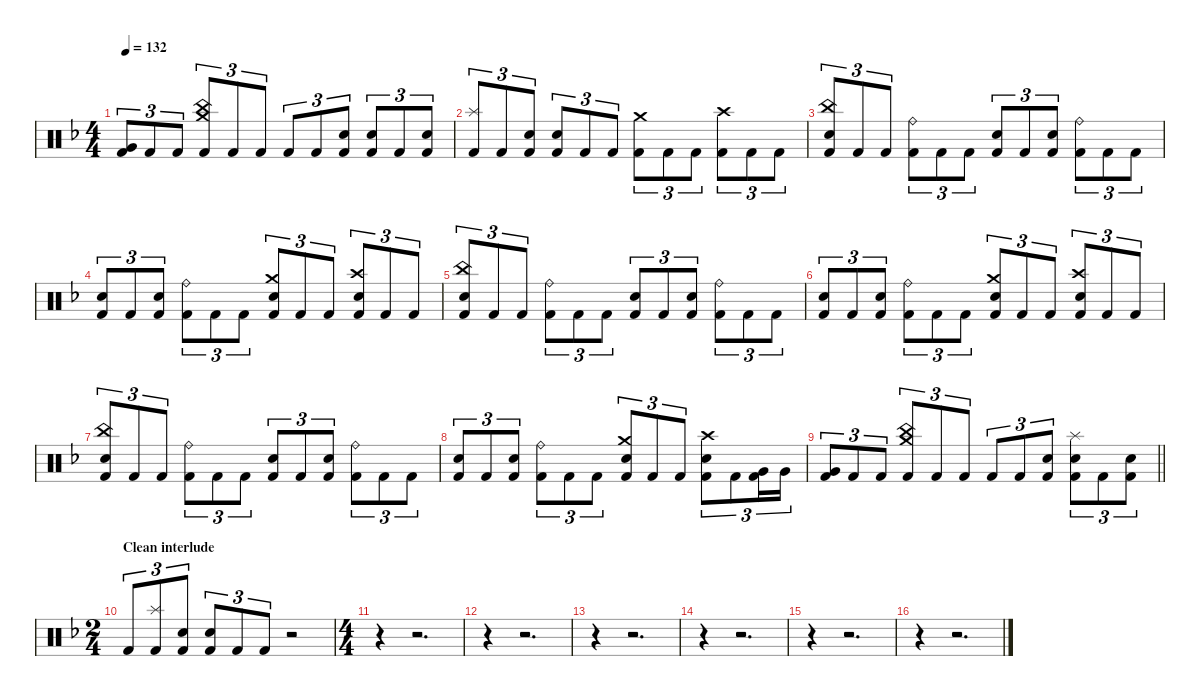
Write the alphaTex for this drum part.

\defaultSystemsLayout 4
\hideDynamics
\bracketExtendMode nobrackets
\singleTrackTrackNamePolicy hidden
\multiTrackTrackNamePolicy hidden
\firstSystemTrackNameMode fullname
\firstSystemTrackNameOrientation horizontal
\otherSystemsTrackNameOrientation horizontal
\track ("Drums" "drm.") {instrument percussion}
\staff {score}
\articulation defaults
\ts (4 4)
\tempo 132
\clef neutral
\ks dminor
("Very Low Tom (hit)"{acc forcenatural} "Kick (hit) 2"{acc forcenatural}).8{tu (3 2) dy f beam Up} "Kick (hit) 2"{acc forcenatural}.8{tu (3 2) beam Up} "Kick (hit) 2"{acc forcenatural}.8{tu (3 2) beam Up} ("China (hit)"{acc forcenatural} "Crash medium (hit)"{acc forcenatural} "Kick (hit) 2"{acc forcenatural}).8{tu (3 2) beam Up} "Kick (hit) 2"{acc forcenatural}.8{tu (3 2) beam Up} "Kick (hit) 2"{acc forcenatural}.8{tu (3 2) beam Up} "Kick (hit) 2"{acc forcenatural}.8{tu (3 2) beam Up} "Kick (hit) 2"{acc forcenatural}.8{tu (3 2) beam Up} ("Snare (hit) 2"{acc forcenatural} "Kick (hit) 2"{acc forcenatural}).8{tu (3 2) beam Up} ("Snare (hit) 2"{acc forcenatural} "Kick (hit) 2"{acc forcenatural}).8{tu (3 2) beam Up} "Kick (hit) 2"{acc forcenatural}.8{tu (3 2) beam Up} ("Snare (hit) 2"{acc forcenatural} "Kick (hit) 2"{acc forcenatural}).8{tu (3 2) beam Up} |
("Splash (hit)"{acc forcenatural} "Kick (hit) 2"{acc forcenatural}).8{tu (3 2) beam Up} "Kick (hit) 2"{acc forcenatural}.8{tu (3 2) beam Up} ("Snare (hit) 2"{acc forcenatural} "Kick (hit) 2"{acc forcenatural}).8{tu (3 2) beam Up} ("Snare (hit) 2"{acc forcenatural} "Kick (hit) 2"{acc forcenatural}).8{tu (3 2) beam Up} "Kick (hit) 2"{acc forcenatural}.8{tu (3 2) beam Up} "Kick (hit) 2"{acc forcenatural}.8{tu (3 2) beam Up} ("Crash medium (hit)"{acc forcenatural} "Kick (hit) 2"{acc forcenatural}).8{tu (3 2) beam Down} "Kick (hit) 2"{acc forcenatural}.8{tu (3 2) beam Down} "Kick (hit) 2"{acc forcenatural}.8{tu (3 2) beam Down} ("Crash high (hit)"{acc forcenatural} "Kick (hit) 2"{acc forcenatural}).8{tu (3 2) beam Down} "Kick (hit) 2"{acc forcenatural}.8{tu (3 2) beam Down} "Kick (hit) 2"{acc forcenatural}.8{tu (3 2) beam Down} |
("China (hit)"{acc forcenatural} "Snare (hit) 2"{acc forcenatural} "Kick (hit) 2"{acc forcenatural}).8{tu (3 2) beam Up} "Kick (hit) 2"{acc forcenatural}.8{tu (3 2) beam Up} "Kick (hit) 2"{acc forcenatural}.8{tu (3 2) beam Up} ("Ride (bell)"{acc forcenatural} "Kick (hit) 2"{acc forcenatural}).8{tu (3 2) beam Down} "Kick (hit) 2"{acc forcenatural}.8{tu (3 2) beam Down} "Kick (hit) 2"{acc forcenatural}.8{tu (3 2) beam Down} ("Snare (hit) 2"{acc forcenatural} "Kick (hit) 2"{acc forcenatural}).8{tu (3 2) beam Up} "Kick (hit) 2"{acc forcenatural}.8{tu (3 2) beam Up} ("Snare (hit) 2"{acc forcenatural} "Kick (hit) 2"{acc forcenatural}).8{tu (3 2) beam Up} ("Ride (bell)"{acc forcenatural} "Kick (hit) 2"{acc forcenatural}).8{tu (3 2) beam Down} "Kick (hit) 2"{acc forcenatural}.8{tu (3 2) beam Down} "Kick (hit) 2"{acc forcenatural}.8{tu (3 2) beam Down} |
("Snare (hit) 2"{acc forcenatural} "Kick (hit) 2"{acc forcenatural}).8{tu (3 2) beam Up} "Kick (hit) 2"{acc forcenatural}.8{tu (3 2) beam Up} ("Snare (hit) 2"{acc forcenatural} "Kick (hit) 2"{acc forcenatural}).8{tu (3 2) beam Up} ("Ride (bell)"{acc forcenatural} "Kick (hit) 2"{acc forcenatural}).8{tu (3 2) beam Down} "Kick (hit) 2"{acc forcenatural}.8{tu (3 2) beam Down} "Kick (hit) 2"{acc forcenatural}.8{tu (3 2) beam Down} ("Crash medium (hit)"{acc forcenatural} "Snare (hit) 2"{acc forcenatural} "Kick (hit) 2"{acc forcenatural}).8{tu (3 2) beam Up} "Kick (hit) 2"{acc forcenatural}.8{tu (3 2) beam Up} "Kick (hit) 2"{acc forcenatural}.8{tu (3 2) beam Up} ("Crash high (hit)"{acc forcenatural} "Snare (hit) 2"{acc forcenatural} "Kick (hit) 2"{acc forcenatural}).8{tu (3 2) beam Up} "Kick (hit) 2"{acc forcenatural}.8{tu (3 2) beam Up} "Kick (hit) 2"{acc forcenatural}.8{tu (3 2) beam Up} |
("China (hit)"{acc forcenatural} "Snare (hit) 2"{acc forcenatural} "Kick (hit) 2"{acc forcenatural}).8{tu (3 2) beam Up} "Kick (hit) 2"{acc forcenatural}.8{tu (3 2) beam Up} "Kick (hit) 2"{acc forcenatural}.8{tu (3 2) beam Up} ("Ride (bell)"{acc forcenatural} "Kick (hit) 2"{acc forcenatural}).8{tu (3 2) beam Down} "Kick (hit) 2"{acc forcenatural}.8{tu (3 2) beam Down} "Kick (hit) 2"{acc forcenatural}.8{tu (3 2) beam Down} ("Snare (hit) 2"{acc forcenatural} "Kick (hit) 2"{acc forcenatural}).8{tu (3 2) beam Up} "Kick (hit) 2"{acc forcenatural}.8{tu (3 2) beam Up} ("Snare (hit) 2"{acc forcenatural} "Kick (hit) 2"{acc forcenatural}).8{tu (3 2) beam Up} ("Ride (bell)"{acc forcenatural} "Kick (hit) 2"{acc forcenatural}).8{tu (3 2) beam Down} "Kick (hit) 2"{acc forcenatural}.8{tu (3 2) beam Down} "Kick (hit) 2"{acc forcenatural}.8{tu (3 2) beam Down} |
("Snare (hit) 2"{acc forcenatural} "Kick (hit) 2"{acc forcenatural}).8{tu (3 2) beam Up} "Kick (hit) 2"{acc forcenatural}.8{tu (3 2) beam Up} ("Snare (hit) 2"{acc forcenatural} "Kick (hit) 2"{acc forcenatural}).8{tu (3 2) beam Up} ("Ride (bell)"{acc forcenatural} "Kick (hit) 2"{acc forcenatural}).8{tu (3 2) beam Down} "Kick (hit) 2"{acc forcenatural}.8{tu (3 2) beam Down} "Kick (hit) 2"{acc forcenatural}.8{tu (3 2) beam Down} ("Crash medium (hit)"{acc forcenatural} "Snare (hit) 2"{acc forcenatural} "Kick (hit) 2"{acc forcenatural}).8{tu (3 2) beam Up} "Kick (hit) 2"{acc forcenatural}.8{tu (3 2) beam Up} "Kick (hit) 2"{acc forcenatural}.8{tu (3 2) beam Up} ("Crash high (hit)"{acc forcenatural} "Snare (hit) 2"{acc forcenatural} "Kick (hit) 2"{acc forcenatural}).8{tu (3 2) beam Up} "Kick (hit) 2"{acc forcenatural}.8{tu (3 2) beam Up} "Kick (hit) 2"{acc forcenatural}.8{tu (3 2) beam Up} |
("China (hit)"{acc forcenatural} "Snare (hit) 2"{acc forcenatural} "Kick (hit) 2"{acc forcenatural}).8{tu (3 2) beam Up} "Kick (hit) 2"{acc forcenatural}.8{tu (3 2) beam Up} "Kick (hit) 2"{acc forcenatural}.8{tu (3 2) beam Up} ("Ride (bell)"{acc forcenatural} "Kick (hit) 2"{acc forcenatural}).8{tu (3 2) beam Down} "Kick (hit) 2"{acc forcenatural}.8{tu (3 2) beam Down} "Kick (hit) 2"{acc forcenatural}.8{tu (3 2) beam Down} ("Snare (hit) 2"{acc forcenatural} "Kick (hit) 2"{acc forcenatural}).8{tu (3 2) beam Up} "Kick (hit) 2"{acc forcenatural}.8{tu (3 2) beam Up} ("Snare (hit) 2"{acc forcenatural} "Kick (hit) 2"{acc forcenatural}).8{tu (3 2) beam Up} ("Ride (bell)"{acc forcenatural} "Kick (hit) 2"{acc forcenatural}).8{tu (3 2) beam Down} "Kick (hit) 2"{acc forcenatural}.8{tu (3 2) beam Down} "Kick (hit) 2"{acc forcenatural}.8{tu (3 2) beam Down} |
("Snare (hit) 2"{acc forcenatural} "Kick (hit) 2"{acc forcenatural}).8{tu (3 2) beam Up} "Kick (hit) 2"{acc forcenatural}.8{tu (3 2) beam Up} ("Snare (hit) 2"{acc forcenatural} "Kick (hit) 2"{acc forcenatural}).8{tu (3 2) beam Up} ("Ride (bell)"{acc forcenatural} "Kick (hit) 2"{acc forcenatural}).8{tu (3 2) beam Down} "Kick (hit) 2"{acc forcenatural}.8{tu (3 2) beam Down} "Kick (hit) 2"{acc forcenatural}.8{tu (3 2) beam Down} ("Crash medium (hit)"{acc forcenatural} "Snare (hit) 2"{acc forcenatural} "Kick (hit) 2"{acc forcenatural}).8{tu (3 2) beam Up} "Kick (hit) 2"{acc forcenatural}.8{tu (3 2) beam Up} "Kick (hit) 2"{acc forcenatural}.8{tu (3 2) beam Up} ("Crash high (hit)"{acc forcenatural} "Snare (hit) 2"{acc forcenatural} "Kick (hit) 2"{acc forcenatural}).8{tu (3 2) beam Down} "Kick (hit) 2"{acc forcenatural}.8{tu (3 2) beam Down} ("Very Low Tom (hit)"{acc forcenatural} "Kick (hit) 2"{acc forcenatural}).16{tu (3 2) beam Down} "Very Low Tom (hit)"{acc forcenatural}.16{tu (3 2) beam Down} |
\barLineRight lightlight
("Very Low Tom (hit)"{acc forcenatural} "Kick (hit) 2"{acc forcenatural}).8{tu (3 2) beam Up} "Kick (hit) 2"{acc forcenatural}.8{tu (3 2) beam Up} "Kick (hit) 2"{acc forcenatural}.8{tu (3 2) beam Up} ("China (hit)"{acc forcenatural} "Crash medium (hit)"{acc forcenatural} "Kick (hit) 2"{acc forcenatural}).8{tu (3 2) beam Up} "Kick (hit) 2"{acc forcenatural}.8{tu (3 2) beam Up} "Kick (hit) 2"{acc forcenatural}.8{tu (3 2) beam Up} "Kick (hit) 2"{acc forcenatural}.8{tu (3 2) beam Up} "Kick (hit) 2"{acc forcenatural}.8{tu (3 2) beam Up} ("Snare (hit) 2"{acc forcenatural} "Kick (hit) 2"{acc forcenatural}).8{tu (3 2) beam Up} ("Splash (hit)"{acc forcenatural} "Snare (hit) 2"{acc forcenatural} "Kick (hit) 2"{acc forcenatural}).8{tu (3 2) beam Down} "Kick (hit) 2"{acc forcenatural}.8{tu (3 2) beam Down} ("Snare (hit) 2"{acc forcenatural} "Kick (hit) 2"{acc forcenatural}).8{tu (3 2) beam Down} |
\ts (2 4)
\beaming (8 2 2)
\section ("" "Clean interlude")
"Kick (hit) 2"{acc forcenatural}.8{tu (3 2) beam Up} ("Splash (hit)"{acc forcenatural} "Kick (hit) 2"{acc forcenatural}).8{tu (3 2) beam Up} ("Snare (hit) 2"{acc forcenatural} "Kick (hit) 2"{acc forcenatural}).8{tu (3 2) beam Up} ("Snare (hit) 2"{acc forcenatural} "Kick (hit) 2"{acc forcenatural}).8{tu (3 2) beam Up} "Kick (hit) 2"{acc forcenatural}.8{tu (3 2) beam Up} "Kick (hit) 2"{acc forcenatural}.8{tu (3 2) beam Up} r.2{beam Up} |
\ts (4 4)
\beaming (8 2 2 2 2)
r.4{beam Down} r.2{d beam Down} |
r.4{beam Down} r.2{d beam Down} |
r.4{beam Down} r.2{d beam Down} |
r.4{beam Down} r.2{d beam Down} |
r.4{beam Down} r.2{d beam Down} |
r.4{beam Down} r.2{d beam Down}
